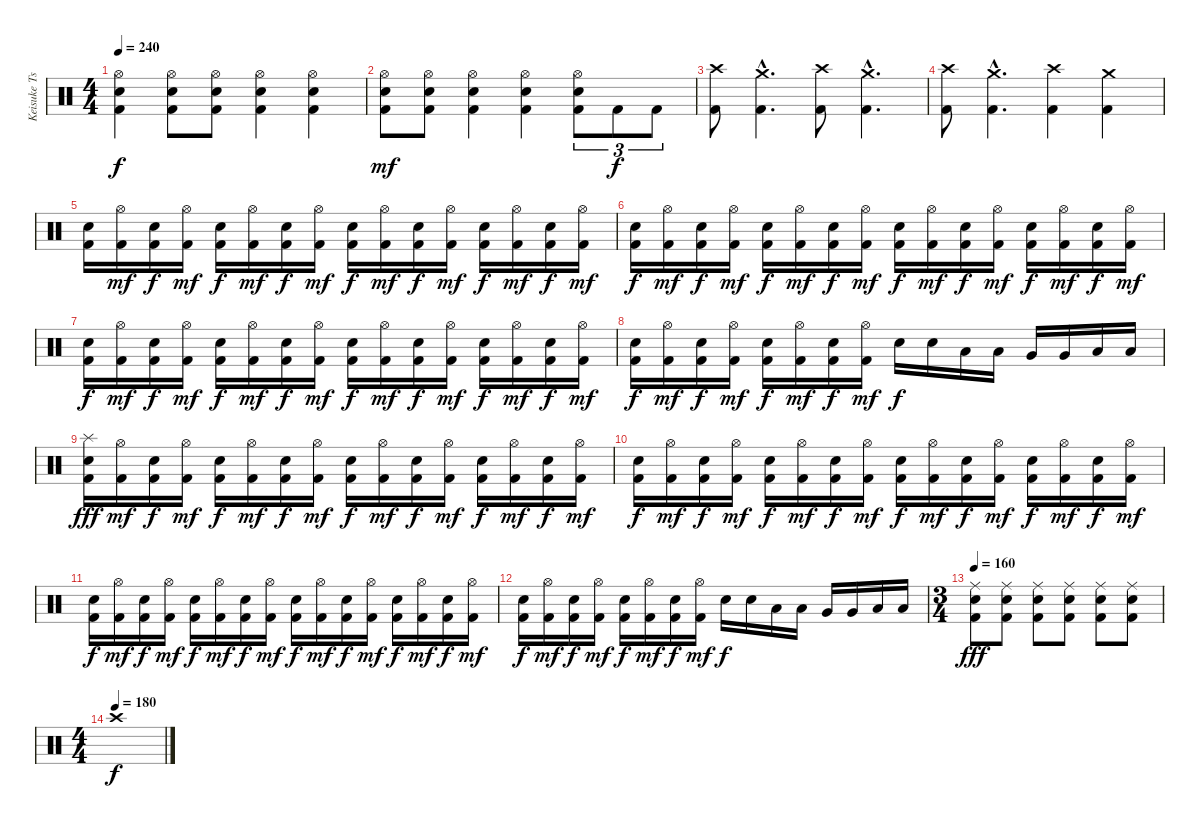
\track ("Keisuke Tsuboi" "Keisuke Ts") {instrument percussion}
\staff {score}
\articulation defaults
\ts (4 4)
\tempo 240
\clef neutral
\ks c
("Hi-Hat (open)" "Electric Snare (hit)" "Kick (hit) 2").4{dy f} ("Hi-Hat (open)" "Electric Snare (hit)" "Kick (hit) 2").8 ("Hi-Hat (open)" "Electric Snare (hit)" "Kick (hit) 2").8 ("Hi-Hat (open)" "Electric Snare (hit)" "Kick (hit) 2").4 ("Hi-Hat (open)" "Electric Snare (hit)" "Kick (hit) 2").4 |
("Hi-Hat (open)" "Electric Snare (hit)" "Kick (hit) 2").8{dy mf} ("Hi-Hat (open)" "Electric Snare (hit)" "Kick (hit) 2").8 ("Hi-Hat (open)" "Electric Snare (hit)" "Kick (hit) 2").4 ("Hi-Hat (open)" "Electric Snare (hit)" "Kick (hit) 2").4 ("Hi-Hat (open)" "Electric Snare (hit)" "Kick (hit) 2").8{tu (3 2)} "Kick (hit) 2".8{tu (3 2) dy f} "Kick (hit) 2".8{tu (3 2)} |
("Crash high (hit)" "Kick (hit) 2").8 ("Crash medium (hit)"{hac} "Kick (hit) 2"{hac}).4{d} ("Crash high (hit)" "Kick (hit) 2").8 ("Crash medium (hit)"{hac} "Kick (hit) 2"{hac}).4{d} |
("Crash high (hit)" "Kick (hit) 2").8 ("Crash medium (hit)"{hac} "Kick (hit) 2"{hac}).4{d} ("Crash high (hit)" "Kick (hit) 2").4 ("Crash medium (hit)" "Kick (hit) 2").4 |
("Electric Snare (hit)" "Kick (hit) 2").16 ("Hi-Hat (open)" "Kick (hit) 2").16{dy mf} ("Electric Snare (hit)" "Kick (hit) 2").16{dy f} ("Hi-Hat (open)" "Kick (hit) 2").16{dy mf} ("Electric Snare (hit)" "Kick (hit) 2").16{dy f} ("Hi-Hat (open)" "Kick (hit) 2").16{dy mf} ("Electric Snare (hit)" "Kick (hit) 2").16{dy f} ("Hi-Hat (open)" "Kick (hit) 2").16{dy mf} ("Electric Snare (hit)" "Kick (hit) 2").16{dy f} ("Hi-Hat (open)" "Kick (hit) 2").16{dy mf} ("Electric Snare (hit)" "Kick (hit) 2").16{dy f} ("Hi-Hat (open)" "Kick (hit) 2").16{dy mf} ("Electric Snare (hit)" "Kick (hit) 2").16{dy f} ("Hi-Hat (open)" "Kick (hit) 2").16{dy mf} ("Electric Snare (hit)" "Kick (hit) 2").16{dy f} ("Hi-Hat (open)" "Kick (hit) 2").16{dy mf} |
("Electric Snare (hit)" "Kick (hit) 2").16{dy f} ("Hi-Hat (open)" "Kick (hit) 2").16{dy mf} ("Electric Snare (hit)" "Kick (hit) 2").16{dy f} ("Hi-Hat (open)" "Kick (hit) 2").16{dy mf} ("Electric Snare (hit)" "Kick (hit) 2").16{dy f} ("Hi-Hat (open)" "Kick (hit) 2").16{dy mf} ("Electric Snare (hit)" "Kick (hit) 2").16{dy f} ("Hi-Hat (open)" "Kick (hit) 2").16{dy mf} ("Electric Snare (hit)" "Kick (hit) 2").16{dy f} ("Hi-Hat (open)" "Kick (hit) 2").16{dy mf} ("Electric Snare (hit)" "Kick (hit) 2").16{dy f} ("Hi-Hat (open)" "Kick (hit) 2").16{dy mf} ("Electric Snare (hit)" "Kick (hit) 2").16{dy f} ("Hi-Hat (open)" "Kick (hit) 2").16{dy mf} ("Electric Snare (hit)" "Kick (hit) 2").16{dy f} ("Hi-Hat (open)" "Kick (hit) 2").16{dy mf} |
("Electric Snare (hit)" "Kick (hit) 2").16{dy f} ("Hi-Hat (open)" "Kick (hit) 2").16{dy mf} ("Electric Snare (hit)" "Kick (hit) 2").16{dy f} ("Hi-Hat (open)" "Kick (hit) 2").16{dy mf} ("Electric Snare (hit)" "Kick (hit) 2").16{dy f} ("Hi-Hat (open)" "Kick (hit) 2").16{dy mf} ("Electric Snare (hit)" "Kick (hit) 2").16{dy f} ("Hi-Hat (open)" "Kick (hit) 2").16{dy mf} ("Electric Snare (hit)" "Kick (hit) 2").16{dy f} ("Hi-Hat (open)" "Kick (hit) 2").16{dy mf} ("Electric Snare (hit)" "Kick (hit) 2").16{dy f} ("Hi-Hat (open)" "Kick (hit) 2").16{dy mf} ("Electric Snare (hit)" "Kick (hit) 2").16{dy f} ("Hi-Hat (open)" "Kick (hit) 2").16{dy mf} ("Electric Snare (hit)" "Kick (hit) 2").16{dy f} ("Hi-Hat (open)" "Kick (hit) 2").16{dy mf} |
("Electric Snare (hit)" "Kick (hit) 2").16{dy f} ("Hi-Hat (open)" "Kick (hit) 2").16{dy mf} ("Electric Snare (hit)" "Kick (hit) 2").16{dy f} ("Hi-Hat (open)" "Kick (hit) 2").16{dy mf} ("Electric Snare (hit)" "Kick (hit) 2").16{dy f} ("Hi-Hat (open)" "Kick (hit) 2").16{dy mf} ("Electric Snare (hit)" "Kick (hit) 2").16{dy f} ("Hi-Hat (open)" "Kick (hit) 2").16{dy mf} "Electric Snare (hit)".16{dy f} "Electric Snare (hit)".16 "Low Tom (hit)".16 "Low Tom (hit)".16 "Very Low Tom (hit)".16 "Very Low Tom (hit)".16 "Low Floor Tom (hit)".16 "Low Floor Tom (hit)".16 |
("Splash (hit)" "Electric Snare (hit)" "Kick (hit) 2").16{dy fff} ("Hi-Hat (open)" "Kick (hit) 2").16{dy mf} ("Electric Snare (hit)" "Kick (hit) 2").16{dy f} ("Hi-Hat (open)" "Kick (hit) 2").16{dy mf} ("Electric Snare (hit)" "Kick (hit) 2").16{dy f} ("Hi-Hat (open)" "Kick (hit) 2").16{dy mf} ("Electric Snare (hit)" "Kick (hit) 2").16{dy f} ("Hi-Hat (open)" "Kick (hit) 2").16{dy mf} ("Electric Snare (hit)" "Kick (hit) 2").16{dy f} ("Hi-Hat (open)" "Kick (hit) 2").16{dy mf} ("Electric Snare (hit)" "Kick (hit) 2").16{dy f} ("Hi-Hat (open)" "Kick (hit) 2").16{dy mf} ("Electric Snare (hit)" "Kick (hit) 2").16{dy f} ("Hi-Hat (open)" "Kick (hit) 2").16{dy mf} ("Electric Snare (hit)" "Kick (hit) 2").16{dy f} ("Hi-Hat (open)" "Kick (hit) 2").16{dy mf} |
("Electric Snare (hit)" "Kick (hit) 2").16{dy f} ("Hi-Hat (open)" "Kick (hit) 2").16{dy mf} ("Electric Snare (hit)" "Kick (hit) 2").16{dy f} ("Hi-Hat (open)" "Kick (hit) 2").16{dy mf} ("Electric Snare (hit)" "Kick (hit) 2").16{dy f} ("Hi-Hat (open)" "Kick (hit) 2").16{dy mf} ("Electric Snare (hit)" "Kick (hit) 2").16{dy f} ("Hi-Hat (open)" "Kick (hit) 2").16{dy mf} ("Electric Snare (hit)" "Kick (hit) 2").16{dy f} ("Hi-Hat (open)" "Kick (hit) 2").16{dy mf} ("Electric Snare (hit)" "Kick (hit) 2").16{dy f} ("Hi-Hat (open)" "Kick (hit) 2").16{dy mf} ("Electric Snare (hit)" "Kick (hit) 2").16{dy f} ("Hi-Hat (open)" "Kick (hit) 2").16{dy mf} ("Electric Snare (hit)" "Kick (hit) 2").16{dy f} ("Hi-Hat (open)" "Kick (hit) 2").16{dy mf} |
("Electric Snare (hit)" "Kick (hit) 2").16{dy f} ("Hi-Hat (open)" "Kick (hit) 2").16{dy mf} ("Electric Snare (hit)" "Kick (hit) 2").16{dy f} ("Hi-Hat (open)" "Kick (hit) 2").16{dy mf} ("Electric Snare (hit)" "Kick (hit) 2").16{dy f} ("Hi-Hat (open)" "Kick (hit) 2").16{dy mf} ("Electric Snare (hit)" "Kick (hit) 2").16{dy f} ("Hi-Hat (open)" "Kick (hit) 2").16{dy mf} ("Electric Snare (hit)" "Kick (hit) 2").16{dy f} ("Hi-Hat (open)" "Kick (hit) 2").16{dy mf} ("Electric Snare (hit)" "Kick (hit) 2").16{dy f} ("Hi-Hat (open)" "Kick (hit) 2").16{dy mf} ("Electric Snare (hit)" "Kick (hit) 2").16{dy f} ("Hi-Hat (open)" "Kick (hit) 2").16{dy mf} ("Electric Snare (hit)" "Kick (hit) 2").16{dy f} ("Hi-Hat (open)" "Kick (hit) 2").16{dy mf} |
("Electric Snare (hit)" "Kick (hit) 2").16{dy f} ("Hi-Hat (open)" "Kick (hit) 2").16{dy mf} ("Electric Snare (hit)" "Kick (hit) 2").16{dy f} ("Hi-Hat (open)" "Kick (hit) 2").16{dy mf} ("Electric Snare (hit)" "Kick (hit) 2").16{dy f} ("Hi-Hat (open)" "Kick (hit) 2").16{dy mf} ("Electric Snare (hit)" "Kick (hit) 2").16{dy f} ("Hi-Hat (open)" "Kick (hit) 2").16{dy mf} "Electric Snare (hit)".16{dy f} "Electric Snare (hit)".16 "Low Tom (hit)".16 "Low Tom (hit)".16 "Very Low Tom (hit)".16 "Very Low Tom (hit)".16 "Low Floor Tom (hit)".16 "Low Floor Tom (hit)".16 |
\ts (3 4)
\tempo 160
("Ride (middle)" "Electric Snare (hit)" "Kick (hit) 2").8{dy fff} ("Ride (middle)" "Electric Snare (hit)" "Kick (hit) 2").8 ("Ride (middle)" "Electric Snare (hit)" "Kick (hit) 2").8 ("Ride (middle)" "Electric Snare (hit)" "Kick (hit) 2").8 ("Ride (middle)" "Electric Snare (hit)" "Kick (hit) 2").8 ("Ride (middle)" "Electric Snare (hit)" "Kick (hit) 2").8 |
\ts (4 4)
\tempo (180)
"Crash high (hit)".1{dy f}
